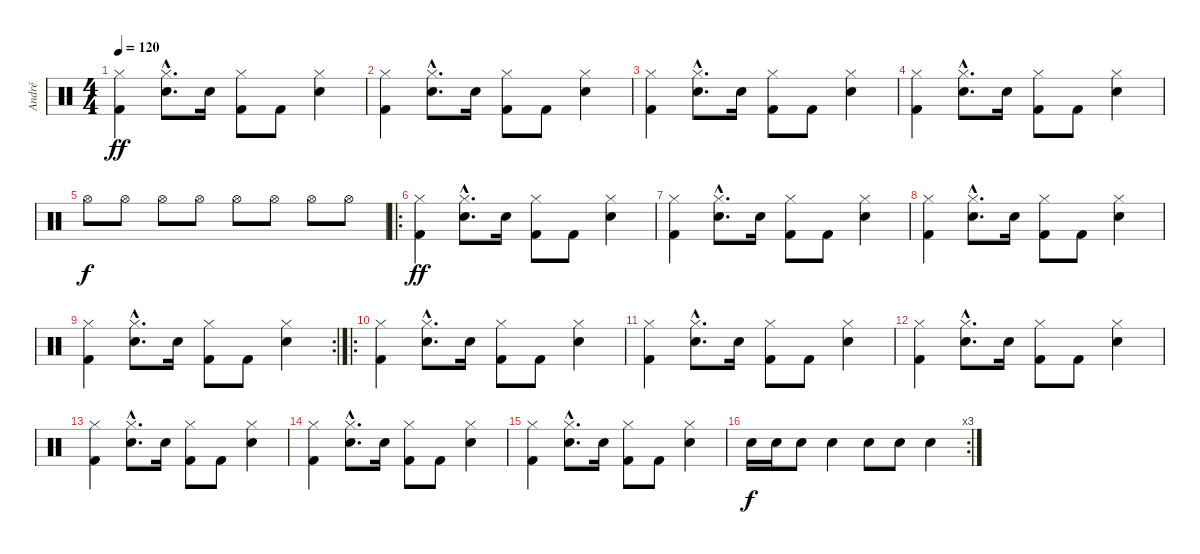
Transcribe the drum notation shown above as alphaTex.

\track ("André" "André") {instrument percussion}
\staff {score}
\articulation defaults
\ts (4 4)
\tempo 120
\clef neutral
\ks c
("Hi-Hat (closed)" "Kick (hit) 2").4{dy ff} ("Hi-Hat (closed)" "Electric Snare (hit)"{hac}).8{d} "Electric Snare (hit)".16 ("Hi-Hat (closed)" "Kick (hit) 2").8 "Kick (hit) 2".8 ("Hi-Hat (closed)" "Electric Snare (hit)").4 |
("Hi-Hat (closed)" "Kick (hit) 2").4 ("Hi-Hat (closed)" "Electric Snare (hit)"{hac}).8{d} "Electric Snare (hit)".16 ("Hi-Hat (closed)" "Kick (hit) 2").8 "Kick (hit) 2".8 ("Hi-Hat (closed)" "Electric Snare (hit)").4 |
("Hi-Hat (closed)" "Kick (hit) 2").4 ("Hi-Hat (closed)" "Electric Snare (hit)"{hac}).8{d} "Electric Snare (hit)".16 ("Hi-Hat (closed)" "Kick (hit) 2").8 "Kick (hit) 2".8 ("Hi-Hat (closed)" "Electric Snare (hit)").4 |
("Hi-Hat (closed)" "Kick (hit) 2").4 ("Hi-Hat (closed)" "Electric Snare (hit)"{hac}).8{d} "Electric Snare (hit)".16 ("Hi-Hat (closed)" "Kick (hit) 2").8 "Kick (hit) 2".8 ("Hi-Hat (closed)" "Electric Snare (hit)").4 |
"Hi-Hat (open)".8{dy f} "Hi-Hat (open)".8 "Hi-Hat (open)".8 "Hi-Hat (open)".8 "Hi-Hat (open)".8 "Hi-Hat (open)".8 "Hi-Hat (open)".8 "Hi-Hat (open)".8 |
\ro
("Hi-Hat (closed)" "Kick (hit) 2").4{dy ff} ("Hi-Hat (closed)" "Electric Snare (hit)"{hac}).8{d} "Electric Snare (hit)".16 ("Hi-Hat (closed)" "Kick (hit) 2").8 "Kick (hit) 2".8 ("Hi-Hat (closed)" "Electric Snare (hit)").4 |
("Hi-Hat (closed)" "Kick (hit) 2").4 ("Hi-Hat (closed)" "Electric Snare (hit)"{hac}).8{d} "Electric Snare (hit)".16 ("Hi-Hat (closed)" "Kick (hit) 2").8 "Kick (hit) 2".8 ("Hi-Hat (closed)" "Electric Snare (hit)").4 |
("Hi-Hat (closed)" "Kick (hit) 2").4 ("Hi-Hat (closed)" "Electric Snare (hit)"{hac}).8{d} "Electric Snare (hit)".16 ("Hi-Hat (closed)" "Kick (hit) 2").8 "Kick (hit) 2".8 ("Hi-Hat (closed)" "Electric Snare (hit)").4 |
\rc 2
("Hi-Hat (closed)" "Kick (hit) 2").4 ("Hi-Hat (closed)" "Electric Snare (hit)"{hac}).8{d} "Electric Snare (hit)".16 ("Hi-Hat (closed)" "Kick (hit) 2").8 "Kick (hit) 2".8 ("Hi-Hat (closed)" "Electric Snare (hit)").4 |
\ro
("Hi-Hat (closed)" "Kick (hit) 2").4 ("Hi-Hat (closed)" "Electric Snare (hit)"{hac}).8{d} "Electric Snare (hit)".16 ("Hi-Hat (closed)" "Kick (hit) 2").8 "Kick (hit) 2".8 ("Hi-Hat (closed)" "Electric Snare (hit)").4 |
("Hi-Hat (closed)" "Kick (hit) 2").4 ("Hi-Hat (closed)" "Electric Snare (hit)"{hac}).8{d} "Electric Snare (hit)".16 ("Hi-Hat (closed)" "Kick (hit) 2").8 "Kick (hit) 2".8 ("Hi-Hat (closed)" "Electric Snare (hit)").4 |
("Hi-Hat (closed)" "Kick (hit) 2").4 ("Hi-Hat (closed)" "Electric Snare (hit)"{hac}).8{d} "Electric Snare (hit)".16 ("Hi-Hat (closed)" "Kick (hit) 2").8 "Kick (hit) 2".8 ("Hi-Hat (closed)" "Electric Snare (hit)").4 |
("Hi-Hat (closed)" "Kick (hit) 2").4 ("Hi-Hat (closed)" "Electric Snare (hit)"{hac}).8{d} "Electric Snare (hit)".16 ("Hi-Hat (closed)" "Kick (hit) 2").8 "Kick (hit) 2".8 ("Hi-Hat (closed)" "Electric Snare (hit)").4 |
("Hi-Hat (closed)" "Kick (hit) 2").4 ("Hi-Hat (closed)" "Electric Snare (hit)"{hac}).8{d} "Electric Snare (hit)".16 ("Hi-Hat (closed)" "Kick (hit) 2").8 "Kick (hit) 2".8 ("Hi-Hat (closed)" "Electric Snare (hit)").4 |
("Hi-Hat (closed)" "Kick (hit) 2").4 ("Hi-Hat (closed)" "Electric Snare (hit)"{hac}).8{d} "Electric Snare (hit)".16 ("Hi-Hat (closed)" "Kick (hit) 2").8 "Kick (hit) 2".8 ("Hi-Hat (closed)" "Electric Snare (hit)").4 |
\rc 3 "Electric Snare (hit)".16{dy f} "Electric Snare (hit)".16 "Electric Snare (hit)".8 "Electric Snare (hit)".4 "Electric Snare (hit)".8 "Electric Snare (hit)".8 "Electric Snare (hit)".4
